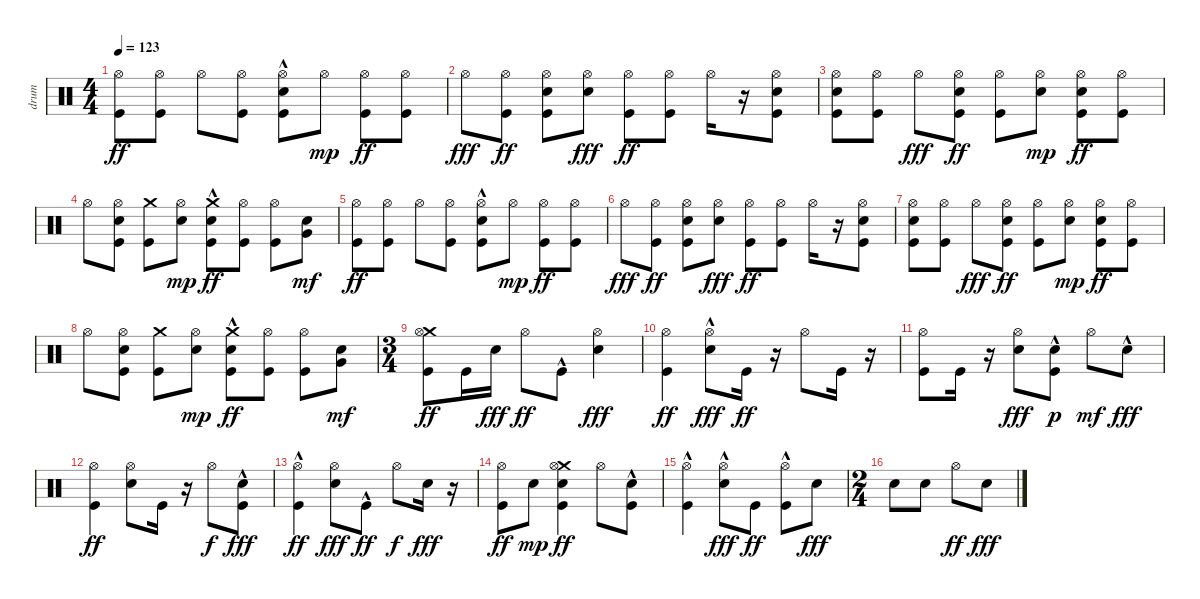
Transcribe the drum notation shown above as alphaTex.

\track ("drum" "drum") {instrument percussion}
\staff {score}
\articulation defaults
\ts (4 4)
\tempo 123
\clef neutral
\ks c
("Hi-Hat (open)" "Kick (hit)").8{dy ff} ("Hi-Hat (open)" "Kick (hit)").8 "Hi-Hat (open)".8 ("Hi-Hat (open)" "Kick (hit)").8 ("Hi-Hat (open)" "Electric Snare (hit)"{hac} "Kick (hit)").8 "Hi-Hat (open)".8{dy mp} ("Hi-Hat (open)" "Kick (hit)").8{dy ff} ("Hi-Hat (open)" "Kick (hit)").8 |
"Hi-Hat (open)".8{dy fff} ("Hi-Hat (open)" "Kick (hit)").8{dy ff} ("Electric Snare (hit)" "Hi-Hat (open)" "Kick (hit)").8 ("Hi-Hat (open)" "Electric Snare (hit)").8{dy fff} ("Hi-Hat (open)" "Kick (hit)").8{dy ff} ("Hi-Hat (open)" "Kick (hit)").8 "Hi-Hat (open)".16 r.16 ("Hi-Hat (open)" "Electric Snare (hit)" "Kick (hit)").8 |
("Hi-Hat (open)" "Electric Snare (hit)" "Kick (hit)").8 ("Hi-Hat (open)" "Kick (hit)").8 "Hi-Hat (open)".8{dy fff} ("Electric Snare (hit)" "Hi-Hat (open)" "Kick (hit)").8{dy ff} ("Hi-Hat (open)" "Kick (hit)").8 ("Hi-Hat (open)" "Electric Snare (hit)").8{dy mp} ("Hi-Hat (open)" "Electric Snare (hit)" "Kick (hit)").8{dy ff} ("Hi-Hat (open)" "Kick (hit)").8 |
"Hi-Hat (open)".8 ("Electric Snare (hit)" "Hi-Hat (open)" "Kick (hit)").8 ("Crash medium (hit)" "Kick (hit)").8 ("Hi-Hat (open)" "Electric Snare (hit)").8{dy mp} ("Crash medium (hit)" "Electric Snare (hit)"{hac} "Kick (hit)").8{dy ff} ("Hi-Hat (open)" "Kick (hit)").8 ("Hi-Hat (open)" "Kick (hit)").8 ("Very Low Tom (hit)" "Electric Snare (hit)").8{dy mf} |
("Hi-Hat (open)" "Kick (hit)").8{dy ff} ("Hi-Hat (open)" "Kick (hit)").8 "Hi-Hat (open)".8 ("Hi-Hat (open)" "Kick (hit)").8 ("Hi-Hat (open)" "Electric Snare (hit)"{hac} "Kick (hit)").8 "Hi-Hat (open)".8{dy mp} ("Hi-Hat (open)" "Kick (hit)").8{dy ff} ("Hi-Hat (open)" "Kick (hit)").8 |
"Hi-Hat (open)".8{dy fff} ("Hi-Hat (open)" "Kick (hit)").8{dy ff} ("Electric Snare (hit)" "Hi-Hat (open)" "Kick (hit)").8 ("Hi-Hat (open)" "Electric Snare (hit)").8{dy fff} ("Hi-Hat (open)" "Kick (hit)").8{dy ff} ("Hi-Hat (open)" "Kick (hit)").8 "Hi-Hat (open)".16 r.16 ("Hi-Hat (open)" "Electric Snare (hit)" "Kick (hit)").8 |
("Hi-Hat (open)" "Electric Snare (hit)" "Kick (hit)").8 ("Hi-Hat (open)" "Kick (hit)").8 "Hi-Hat (open)".8{dy fff} ("Electric Snare (hit)" "Hi-Hat (open)" "Kick (hit)").8{dy ff} ("Hi-Hat (open)" "Kick (hit)").8 ("Hi-Hat (open)" "Electric Snare (hit)").8{dy mp} ("Hi-Hat (open)" "Electric Snare (hit)" "Kick (hit)").8{dy ff} ("Hi-Hat (open)" "Kick (hit)").8 |
"Hi-Hat (open)".8 ("Electric Snare (hit)" "Hi-Hat (open)" "Kick (hit)").8 ("Crash medium (hit)" "Kick (hit)").8 ("Hi-Hat (open)" "Electric Snare (hit)").8{dy mp} ("Crash medium (hit)" "Electric Snare (hit)"{hac} "Kick (hit)").8{dy ff} ("Hi-Hat (open)" "Kick (hit)").8 ("Hi-Hat (open)" "Kick (hit)").8 ("Very Low Tom (hit)" "Electric Snare (hit)").8{dy mf} |
\ts (3 4)
("Crash medium (hit)" "Kick (hit)" "Hi-Hat (open)").8{dy ff} "Kick (hit)".16 "Electric Snare (hit)".16{dy fff} "Hi-Hat (open)".8{dy ff} "Kick (hit)"{hac}.8 ("Hi-Hat (open)" "Electric Snare (hit)").4{dy fff} |
("Kick (hit)" "Hi-Hat (open)").4{dy ff} ("Hi-Hat (open)" "Electric Snare (hit)"{hac}).8{dy fff} "Kick (hit)".16{dy ff} r.16 "Hi-Hat (open)".8 "Kick (hit)".16 r.16 |
("Kick (hit)" "Hi-Hat (open)").8 "Kick (hit)".16 r.16 ("Electric Snare (hit)" "Hi-Hat (open)").8{dy fff} ("Kick (hit)"{hac} "Electric Snare (hit)").8{dy p} "Hi-Hat (open)".8{dy mf} "Electric Snare (hit)"{hac}.8{dy fff} |
("Kick (hit)" "Hi-Hat (open)").4{dy ff} ("Electric Snare (hit)" "Hi-Hat (open)").8 "Kick (hit)".16 r.16 "Hi-Hat (open)".8{dy f} ("Kick (hit)" "Electric Snare (hit)"{hac}).8{dy fff} |
("Hi-Hat (open)" "Kick (hit)"{hac}).4{dy ff} ("Hi-Hat (open)" "Electric Snare (hit)").8{dy fff} "Kick (hit)"{hac}.8{dy ff} "Hi-Hat (open)".8{dy f} "Electric Snare (hit)".16{dy fff} r.16 |
("Hi-Hat (open)" "Kick (hit)").8{dy ff} "Electric Snare (hit)".8{dy mp} ("Kick (hit)" "Crash medium (hit)" "Electric Snare (hit)" "Hi-Hat (open)").4{dy ff} "Hi-Hat (open)".8 ("Electric Snare (hit)"{hac} "Kick (hit)").8 |
("Hi-Hat (open)" "Kick (hit)"{hac}).4 ("Hi-Hat (open)" "Electric Snare (hit)"{hac}).8{dy fff} "Kick (hit)".8{dy ff} ("Hi-Hat (open)" "Kick (hit)"{hac}).8 "Electric Snare (hit)".8{dy fff} |
\ts (2 4)
"Electric Snare (hit)".8 "Electric Snare (hit)".8 "Hi-Hat (open)".8{dy ff} "Electric Snare (hit)".8{dy fff}
